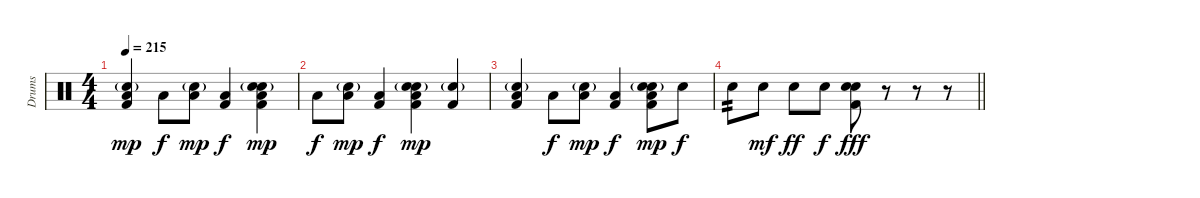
\track ("Drums" "Drums") {instrument percussion}
\staff {score}
\articulation defaults
\ts (4 4)
\tempo 215
\clef neutral
\ks c
("Electric Snare (hit)"{g} "Low Floor Tom (hit)" "Kick (hit) 2").4{dy mp} "Low Floor Tom (hit)".8{dy f} ("Electric Snare (hit)"{g} "Low Floor Tom (hit)").8{dy mp} ("Low Floor Tom (hit)" "Kick (hit) 2").4{dy f} ("Electric Snare (hit)" "Kick (hit) 2" "Low Floor Tom (hit)" "Snare (hit) 2"{g}).4{dy mp} |
"Low Floor Tom (hit)".8{dy f} ("Electric Snare (hit)"{g} "Low Floor Tom (hit)").8{dy mp} ("Low Floor Tom (hit)" "Kick (hit) 2").4{dy f} ("Snare (hit) 2"{g} "Electric Snare (hit)" "Kick (hit) 2" "Low Floor Tom (hit)").4{dy mp} ("Electric Snare (hit)"{g} "Kick (hit) 2").4 |
("Electric Snare (hit)"{g} "Low Floor Tom (hit)" "Kick (hit) 2").4 "Low Floor Tom (hit)".8{dy f} ("Electric Snare (hit)"{g} "Low Floor Tom (hit)").8{dy mp} ("Low Floor Tom (hit)" "Kick (hit) 2").4{dy f} ("Electric Snare (hit)" "Kick (hit) 2" "Low Floor Tom (hit)" "Snare (hit) 2"{g}).8{dy mp} "Snare (hit) 2".8{dy f} |
\barLineRight lightlight "Snare (hit) 2".8{tp 2} "Snare (hit) 2".8{dy mf} "Snare (hit) 2".8{dy ff} "Snare (hit) 2".8{dy f}
("Kick (hit) 2" "Snare (hit) 2" "Electric Snare (hit)").8{dy fff} r.8 r.8 r.8
